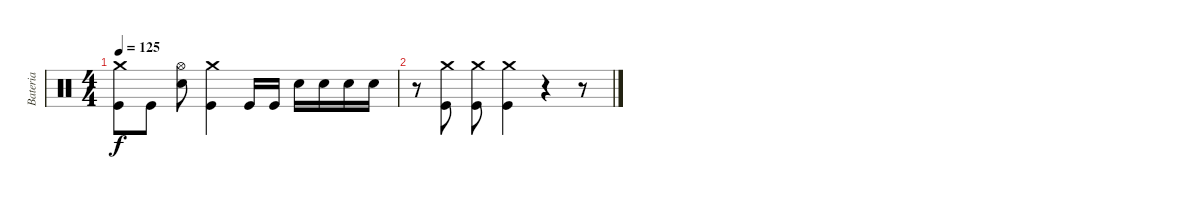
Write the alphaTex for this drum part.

\track ("Bateria" "Bateria") {instrument percussion}
\staff {score}
\articulation defaults
\ts (4 4)
\tempo 125
\clef neutral
\ks c
("Crash medium (hit)" "Kick (hit)").8{dy f} "Kick (hit)".8 ("Hi-Hat (open)" "Electric Snare (hit)").8 ("Crash medium (hit)" "Kick (hit)").4 "Kick (hit)".16 "Kick (hit)".16 "Electric Snare (hit)".16 "Electric Snare (hit)".16 "Electric Snare (hit)".16 "Electric Snare (hit)".16 |
r.8 ("Crash medium (hit)" "Kick (hit)").8 ("Crash medium (hit)" "Kick (hit)").8 ("Crash medium (hit)" "Kick (hit)").4 r.4 r.8
